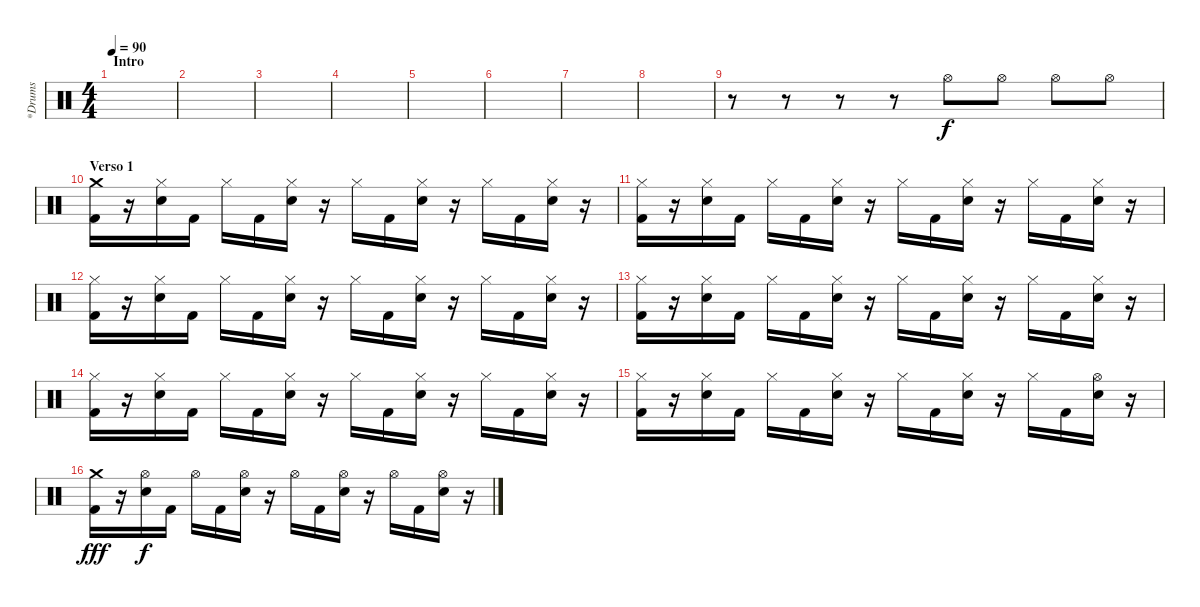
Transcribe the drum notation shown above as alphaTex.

\track ("*Drums" "*Drums") {instrument percussion}
\staff {score}
\articulation defaults
\ts (4 4)
\section ("" "Intro")
\tempo 90
\clef neutral
\ks c
|
|
|
|
|
|
|
|
r.8 r.8 r.8 r.8 "Hi-Hat (open)".8 "Hi-Hat (open)".8 "Hi-Hat (open)".8 "Hi-Hat (open)".8 |
\section ("" "Verso 1")
("Crash medium (hit)" "Kick (hit) 2").16{dy f} r.16 ("Hi-Hat (closed)" "Electric Snare (hit)").16 "Kick (hit) 2".16 "Hi-Hat (closed)".16 "Kick (hit) 2".16 ("Hi-Hat (closed)" "Electric Snare (hit)").16 r.16 "Hi-Hat (closed)".16 "Kick (hit) 2".16 ("Hi-Hat (closed)" "Electric Snare (hit)").16 r.16 "Hi-Hat (closed)".16 "Kick (hit) 2".16 ("Hi-Hat (closed)" "Electric Snare (hit)").16 r.16 |
("Hi-Hat (closed)" "Kick (hit) 2").16 r.16 ("Hi-Hat (closed)" "Electric Snare (hit)").16 "Kick (hit) 2".16 "Hi-Hat (closed)".16 "Kick (hit) 2".16 ("Hi-Hat (closed)" "Electric Snare (hit)").16 r.16 "Hi-Hat (closed)".16 "Kick (hit) 2".16 ("Hi-Hat (closed)" "Electric Snare (hit)").16 r.16 "Hi-Hat (closed)".16 "Kick (hit) 2".16 ("Hi-Hat (closed)" "Electric Snare (hit)").16 r.16 |
("Hi-Hat (closed)" "Kick (hit) 2").16 r.16 ("Hi-Hat (closed)" "Electric Snare (hit)").16 "Kick (hit) 2".16 "Hi-Hat (closed)".16 "Kick (hit) 2".16 ("Hi-Hat (closed)" "Electric Snare (hit)").16 r.16 "Hi-Hat (closed)".16 "Kick (hit) 2".16 ("Hi-Hat (closed)" "Electric Snare (hit)").16 r.16 "Hi-Hat (closed)".16 "Kick (hit) 2".16 ("Hi-Hat (closed)" "Electric Snare (hit)").16 r.16 |
("Hi-Hat (closed)" "Kick (hit) 2").16 r.16 ("Hi-Hat (closed)" "Electric Snare (hit)").16 "Kick (hit) 2".16 "Hi-Hat (closed)".16 "Kick (hit) 2".16 ("Hi-Hat (closed)" "Electric Snare (hit)").16 r.16 "Hi-Hat (closed)".16 "Kick (hit) 2".16 ("Hi-Hat (closed)" "Electric Snare (hit)").16 r.16 "Hi-Hat (closed)".16 "Kick (hit) 2".16 ("Hi-Hat (closed)" "Electric Snare (hit)").16 r.16 |
("Hi-Hat (closed)" "Kick (hit) 2").16 r.16 ("Hi-Hat (closed)" "Electric Snare (hit)").16 "Kick (hit) 2".16 "Hi-Hat (closed)".16 "Kick (hit) 2".16 ("Hi-Hat (closed)" "Electric Snare (hit)").16 r.16 "Hi-Hat (closed)".16 "Kick (hit) 2".16 ("Hi-Hat (closed)" "Electric Snare (hit)").16 r.16 "Hi-Hat (closed)".16 "Kick (hit) 2".16 ("Hi-Hat (closed)" "Electric Snare (hit)").16 r.16 |
("Hi-Hat (closed)" "Kick (hit) 2").16 r.16 ("Hi-Hat (closed)" "Electric Snare (hit)").16 "Kick (hit) 2".16 "Hi-Hat (closed)".16 "Kick (hit) 2".16 ("Hi-Hat (closed)" "Electric Snare (hit)").16 r.16 "Hi-Hat (closed)".16 "Kick (hit) 2".16 ("Hi-Hat (closed)" "Electric Snare (hit)").16 r.16 "Hi-Hat (closed)".16 "Kick (hit) 2".16 ("Hi-Hat (open)" "Electric Snare (hit)").16 r.16 |
("Crash medium (hit)" "Kick (hit) 2").16{dy fff} r.16 ("Hi-Hat (open)" "Electric Snare (hit)").16{dy f} "Kick (hit) 2".16 "Hi-Hat (open)".16 "Kick (hit) 2".16 ("Hi-Hat (open)" "Electric Snare (hit)").16 r.16 "Hi-Hat (open)".16 "Kick (hit) 2".16 ("Hi-Hat (open)" "Electric Snare (hit)").16 r.16 "Hi-Hat (open)".16 "Kick (hit) 2".16 ("Hi-Hat (open)" "Electric Snare (hit)").16 r.16
